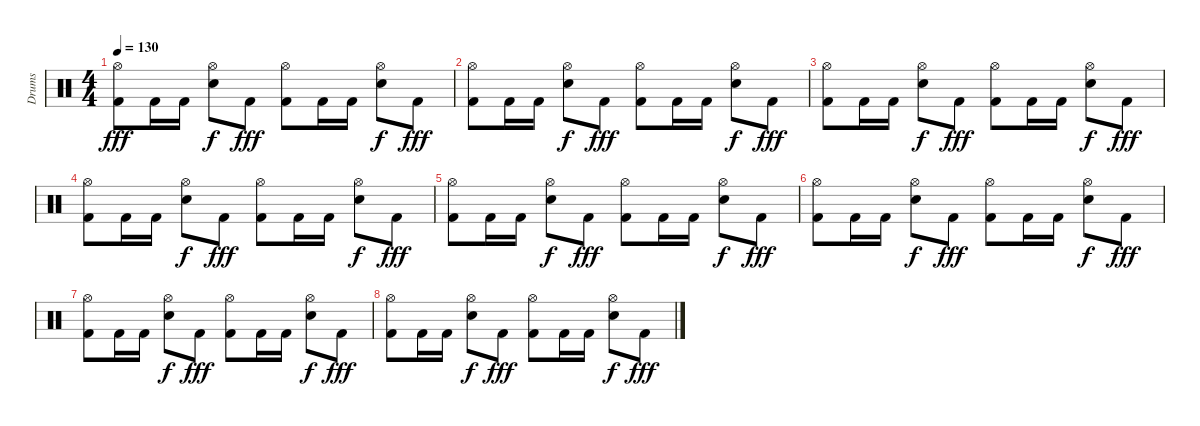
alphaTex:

\track ("Drums" "Drums") {instrument percussion}
\staff {score}
\articulation defaults
\ts (4 4)
\tempo 130
\clef neutral
\ks c
("Hi-Hat (open)" "Kick (hit) 2").8{dy fff} "Kick (hit) 2".16 "Kick (hit) 2".16 ("Hi-Hat (open)" "Electric Snare (hit)").8{dy f} "Kick (hit) 2".8{dy fff} ("Hi-Hat (open)" "Kick (hit) 2").8 "Kick (hit) 2".16 "Kick (hit) 2".16 ("Hi-Hat (open)" "Electric Snare (hit)").8{dy f} "Kick (hit) 2".8{dy fff} |
("Hi-Hat (open)" "Kick (hit) 2").8 "Kick (hit) 2".16 "Kick (hit) 2".16 ("Hi-Hat (open)" "Electric Snare (hit)").8{dy f} "Kick (hit) 2".8{dy fff} ("Hi-Hat (open)" "Kick (hit) 2").8 "Kick (hit) 2".16 "Kick (hit) 2".16 ("Hi-Hat (open)" "Electric Snare (hit)").8{dy f} "Kick (hit) 2".8{dy fff} |
("Hi-Hat (open)" "Kick (hit) 2").8 "Kick (hit) 2".16 "Kick (hit) 2".16 ("Hi-Hat (open)" "Electric Snare (hit)").8{dy f} "Kick (hit) 2".8{dy fff} ("Hi-Hat (open)" "Kick (hit) 2").8 "Kick (hit) 2".16 "Kick (hit) 2".16 ("Hi-Hat (open)" "Electric Snare (hit)").8{dy f} "Kick (hit) 2".8{dy fff} |
("Hi-Hat (open)" "Kick (hit) 2").8 "Kick (hit) 2".16 "Kick (hit) 2".16 ("Hi-Hat (open)" "Electric Snare (hit)").8{dy f} "Kick (hit) 2".8{dy fff} ("Hi-Hat (open)" "Kick (hit) 2").8 "Kick (hit) 2".16 "Kick (hit) 2".16 ("Hi-Hat (open)" "Electric Snare (hit)").8{dy f} "Kick (hit) 2".8{dy fff} |
("Hi-Hat (open)" "Kick (hit) 2").8 "Kick (hit) 2".16 "Kick (hit) 2".16 ("Hi-Hat (open)" "Electric Snare (hit)").8{dy f} "Kick (hit) 2".8{dy fff} ("Hi-Hat (open)" "Kick (hit) 2").8 "Kick (hit) 2".16 "Kick (hit) 2".16 ("Hi-Hat (open)" "Electric Snare (hit)").8{dy f} "Kick (hit) 2".8{dy fff} |
("Hi-Hat (open)" "Kick (hit) 2").8 "Kick (hit) 2".16 "Kick (hit) 2".16 ("Hi-Hat (open)" "Electric Snare (hit)").8{dy f} "Kick (hit) 2".8{dy fff} ("Hi-Hat (open)" "Kick (hit) 2").8 "Kick (hit) 2".16 "Kick (hit) 2".16 ("Hi-Hat (open)" "Electric Snare (hit)").8{dy f} "Kick (hit) 2".8{dy fff} |
("Hi-Hat (open)" "Kick (hit) 2").8 "Kick (hit) 2".16 "Kick (hit) 2".16 ("Hi-Hat (open)" "Electric Snare (hit)").8{dy f} "Kick (hit) 2".8{dy fff} ("Hi-Hat (open)" "Kick (hit) 2").8 "Kick (hit) 2".16 "Kick (hit) 2".16 ("Hi-Hat (open)" "Electric Snare (hit)").8{dy f} "Kick (hit) 2".8{dy fff} |
("Hi-Hat (open)" "Kick (hit) 2").8 "Kick (hit) 2".16 "Kick (hit) 2".16 ("Hi-Hat (open)" "Electric Snare (hit)").8{dy f} "Kick (hit) 2".8{dy fff} ("Hi-Hat (open)" "Kick (hit) 2").8 "Kick (hit) 2".16 "Kick (hit) 2".16 ("Hi-Hat (open)" "Electric Snare (hit)").8{dy f} "Kick (hit) 2".8{dy fff}
